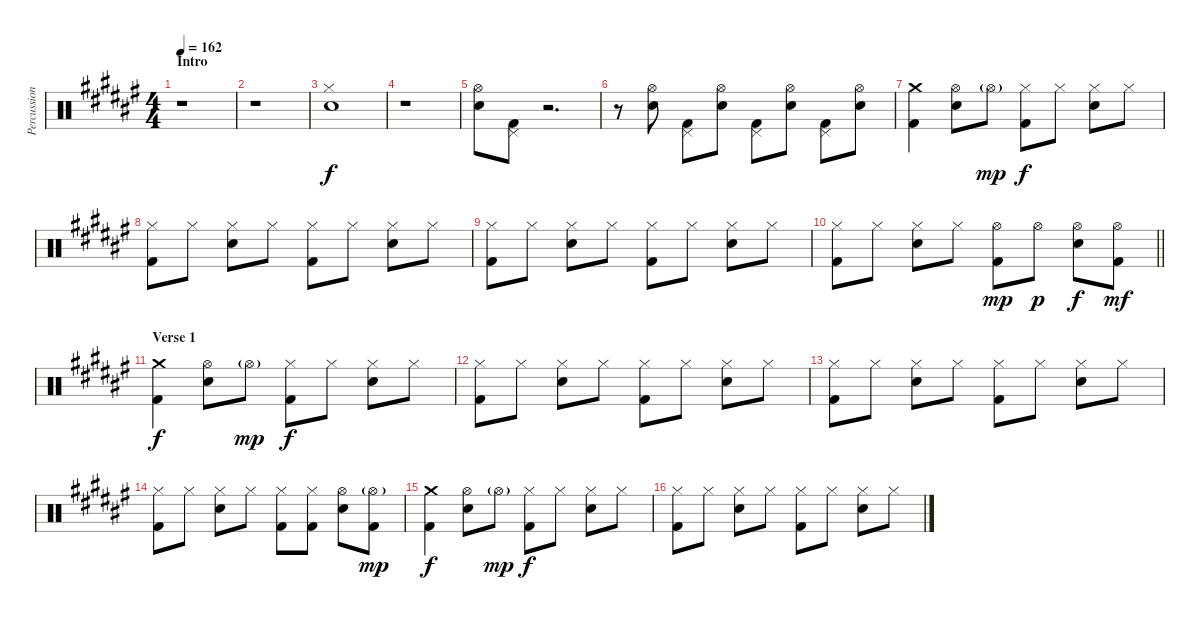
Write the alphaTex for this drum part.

\track ("Percussion" "Percussion") {instrument percussion}
\staff {score}
\articulation defaults
\ts (4 4)
\section ("" "Intro")
\tempo 162
\clef neutral
\ks f#
r.1{dy f} |
r.1 |
("Hi-Hat (closed)" "Electric Snare (hit)").1 |
r.1 |
("Hi-Hat (open)" "Electric Snare (hit)").8 ("Pedal Hi-Hat (hit)" "Kick (hit) 2").8 r.2{d} |
r.8 ("Hi-Hat (open)" "Electric Snare (hit)").8 ("Pedal Hi-Hat (hit)" "Kick (hit) 2").8 ("Hi-Hat (open)" "Electric Snare (hit)").8 ("Pedal Hi-Hat (hit)" "Kick (hit) 2").8 ("Hi-Hat (open)" "Electric Snare (hit)").8 ("Pedal Hi-Hat (hit)" "Kick (hit) 2").8 ("Hi-Hat (open)" "Electric Snare (hit)").8 |
("Crash medium (hit)" "Kick (hit) 2").4 ("Hi-Hat (open)" "Electric Snare (hit)").8 "Hi-Hat (open)"{g}.8{dy mp} ("Hi-Hat (closed)" "Kick (hit) 2").8{dy f} "Hi-Hat (closed)".8 ("Hi-Hat (closed)" "Electric Snare (hit)").8 "Hi-Hat (closed)".8 |
("Hi-Hat (closed)" "Kick (hit) 2").8 "Hi-Hat (closed)".8 ("Hi-Hat (closed)" "Electric Snare (hit)").8 "Hi-Hat (closed)".8 ("Hi-Hat (closed)" "Kick (hit) 2").8 "Hi-Hat (closed)".8 ("Hi-Hat (closed)" "Electric Snare (hit)").8 "Hi-Hat (closed)".8 |
("Hi-Hat (closed)" "Kick (hit) 2").8 "Hi-Hat (closed)".8 ("Hi-Hat (closed)" "Electric Snare (hit)").8 "Hi-Hat (closed)".8 ("Hi-Hat (closed)" "Kick (hit) 2").8 "Hi-Hat (closed)".8 ("Hi-Hat (closed)" "Electric Snare (hit)").8 "Hi-Hat (closed)".8 |
\barLineRight lightlight
("Hi-Hat (closed)" "Kick (hit) 2").8 "Hi-Hat (closed)".8 ("Hi-Hat (closed)" "Electric Snare (hit)").8 "Hi-Hat (closed)".8 ("Hi-Hat (open)" "Kick (hit) 2").8{dy mp} "Hi-Hat (open)".8{dy p} ("Hi-Hat (open)" "Electric Snare (hit)").8{dy f} ("Hi-Hat (open)" "Kick (hit) 2").8{dy mf} |
\section ("" "Verse 1")
("Crash medium (hit)" "Kick (hit) 2").4{dy f} ("Hi-Hat (open)" "Electric Snare (hit)").8 "Hi-Hat (open)"{g}.8{dy mp} ("Hi-Hat (closed)" "Kick (hit) 2").8{dy f} "Hi-Hat (closed)".8 ("Hi-Hat (closed)" "Electric Snare (hit)").8 "Hi-Hat (closed)".8 |
("Hi-Hat (closed)" "Kick (hit) 2").8 "Hi-Hat (closed)".8 ("Hi-Hat (closed)" "Electric Snare (hit)").8 "Hi-Hat (closed)".8 ("Hi-Hat (closed)" "Kick (hit) 2").8 "Hi-Hat (closed)".8 ("Hi-Hat (closed)" "Electric Snare (hit)").8 "Hi-Hat (closed)".8 |
("Hi-Hat (closed)" "Kick (hit) 2").8 "Hi-Hat (closed)".8 ("Hi-Hat (closed)" "Electric Snare (hit)").8 "Hi-Hat (closed)".8 ("Hi-Hat (closed)" "Kick (hit) 2").8 "Hi-Hat (closed)".8 ("Hi-Hat (closed)" "Electric Snare (hit)").8 "Hi-Hat (closed)".8 |
("Hi-Hat (closed)" "Kick (hit) 2").8 "Hi-Hat (closed)".8 ("Hi-Hat (closed)" "Electric Snare (hit)").8 "Hi-Hat (closed)".8 ("Hi-Hat (closed)" "Kick (hit) 2").8 ("Hi-Hat (closed)" "Kick (hit) 2").8 ("Hi-Hat (open)" "Electric Snare (hit)").8 ("Hi-Hat (open)"{g} "Kick (hit) 2").8{dy mp} |
("Crash medium (hit)" "Kick (hit) 2").4{dy f} ("Hi-Hat (open)" "Electric Snare (hit)").8 "Hi-Hat (open)"{g}.8{dy mp} ("Hi-Hat (closed)" "Kick (hit) 2").8{dy f} "Hi-Hat (closed)".8 ("Hi-Hat (closed)" "Electric Snare (hit)").8 "Hi-Hat (closed)".8 |
("Hi-Hat (closed)" "Kick (hit) 2").8 "Hi-Hat (closed)".8 ("Hi-Hat (closed)" "Electric Snare (hit)").8 "Hi-Hat (closed)".8 ("Hi-Hat (closed)" "Kick (hit) 2").8 "Hi-Hat (closed)".8 ("Hi-Hat (closed)" "Electric Snare (hit)").8 "Hi-Hat (closed)".8
